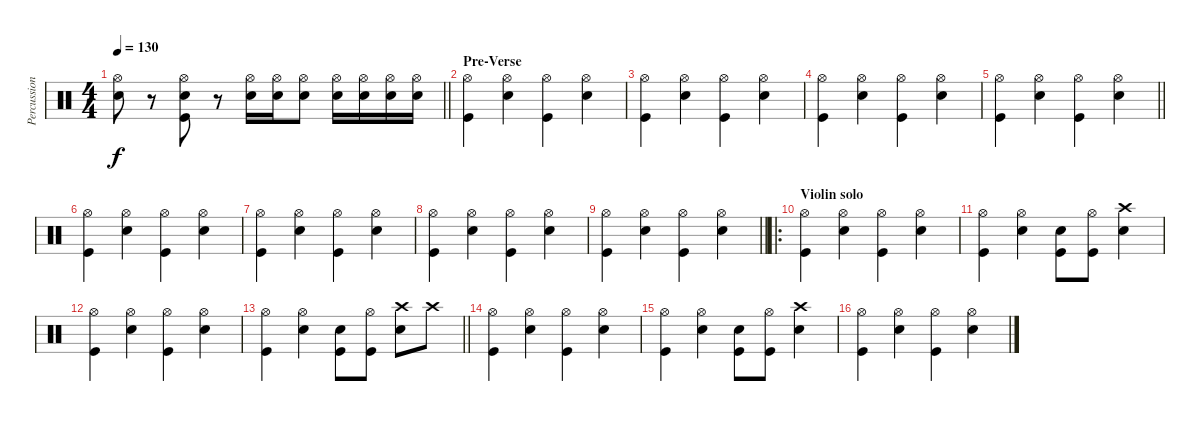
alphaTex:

\track ("Percussion" "Percussion") {instrument percussion}
\staff {score}
\articulation defaults
\ts (4 4)
\tempo 130
\clef neutral
\barLineRight lightlight
\ks c
("Hi-Hat (open)" "Snare (hit) 2").8{dy f} r.8 ("Hi-Hat (open)" "Snare (hit) 2" "Kick (hit)").8 r.8 ("Hi-Hat (open)" "Snare (hit) 2").16 ("Hi-Hat (open)" "Snare (hit) 2").16 ("Hi-Hat (open)" "Snare (hit) 2").8 ("Hi-Hat (open)" "Snare (hit) 2").16 ("Hi-Hat (open)" "Snare (hit) 2").16 ("Hi-Hat (open)" "Snare (hit) 2").16 ("Hi-Hat (open)" "Snare (hit) 2").16 |
\section ("" "Pre-Verse")
("Hi-Hat (open)" "Kick (hit)").4 ("Hi-Hat (open)" "Snare (hit) 2").4 ("Hi-Hat (open)" "Kick (hit)").4 ("Hi-Hat (open)" "Snare (hit) 2").4 |
("Hi-Hat (open)" "Kick (hit)").4 ("Hi-Hat (open)" "Snare (hit) 2").4 ("Hi-Hat (open)" "Kick (hit)").4 ("Hi-Hat (open)" "Snare (hit) 2").4 |
("Hi-Hat (open)" "Kick (hit)").4 ("Hi-Hat (open)" "Snare (hit) 2").4 ("Hi-Hat (open)" "Kick (hit)").4 ("Hi-Hat (open)" "Snare (hit) 2").4 |
\barLineRight lightlight
("Hi-Hat (open)" "Kick (hit)").4 ("Hi-Hat (open)" "Snare (hit) 2").4 ("Hi-Hat (open)" "Kick (hit)").4 ("Hi-Hat (open)" "Snare (hit) 2").4 |
("Hi-Hat (open)" "Kick (hit)").4 ("Hi-Hat (open)" "Snare (hit) 2").4 ("Hi-Hat (open)" "Kick (hit)").4 ("Hi-Hat (open)" "Snare (hit) 2").4 |
("Hi-Hat (open)" "Kick (hit)").4 ("Hi-Hat (open)" "Snare (hit) 2").4 ("Hi-Hat (open)" "Kick (hit)").4 ("Hi-Hat (open)" "Snare (hit) 2").4 |
("Hi-Hat (open)" "Kick (hit)").4 ("Hi-Hat (open)" "Snare (hit) 2").4 ("Hi-Hat (open)" "Kick (hit)").4 ("Hi-Hat (open)" "Snare (hit) 2").4 |
\barLineRight lightlight
("Hi-Hat (open)" "Kick (hit)").4 ("Hi-Hat (open)" "Snare (hit) 2").4 ("Hi-Hat (open)" "Kick (hit)").4 ("Hi-Hat (open)" "Snare (hit) 2").4 |
\ro
\section ("" "Violin solo")
("Hi-Hat (open)" "Kick (hit)").4 ("Hi-Hat (open)" "Snare (hit) 2").4 ("Hi-Hat (open)" "Kick (hit)").4 ("Hi-Hat (open)" "Snare (hit) 2").4 |
("Hi-Hat (open)" "Kick (hit)").4 ("Hi-Hat (open)" "Snare (hit) 2").4 ("Snare (hit) 2" "Kick (hit)").8 ("Hi-Hat (open)" "Kick (hit)").8 ("Crash high (hit)" "Snare (hit) 2").4 |
("Hi-Hat (open)" "Kick (hit)").4 ("Hi-Hat (open)" "Snare (hit) 2").4 ("Hi-Hat (open)" "Kick (hit)").4 ("Hi-Hat (open)" "Snare (hit) 2").4 |
\barLineRight lightlight
("Hi-Hat (open)" "Kick (hit)").4 ("Hi-Hat (open)" "Snare (hit) 2").4 ("Snare (hit) 2" "Kick (hit)").8 ("Hi-Hat (open)" "Kick (hit)").8 ("Crash high (hit)" "Snare (hit) 2").8 "Crash high (hit)".8 |
("Hi-Hat (open)" "Kick (hit)").4 ("Hi-Hat (open)" "Snare (hit) 2").4 ("Hi-Hat (open)" "Kick (hit)").4 ("Hi-Hat (open)" "Snare (hit) 2").4 |
("Hi-Hat (open)" "Kick (hit)").4 ("Hi-Hat (open)" "Snare (hit) 2").4 ("Snare (hit) 2" "Kick (hit)").8 ("Hi-Hat (open)" "Kick (hit)").8 ("Crash high (hit)" "Snare (hit) 2").4 |
("Hi-Hat (open)" "Kick (hit)").4 ("Hi-Hat (open)" "Snare (hit) 2").4 ("Hi-Hat (open)" "Kick (hit)").4 ("Hi-Hat (open)" "Snare (hit) 2").4
